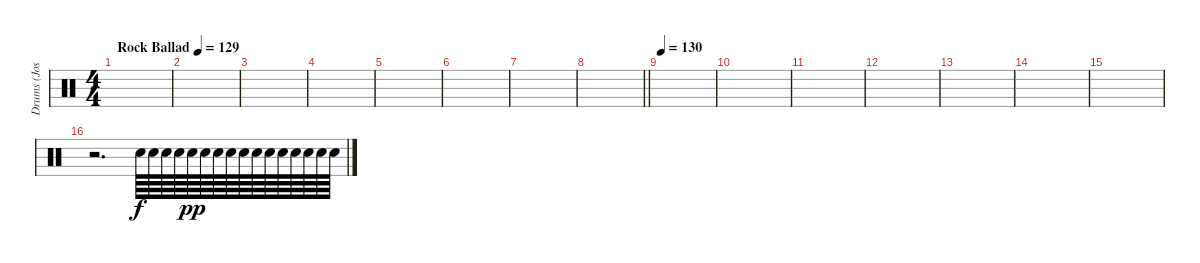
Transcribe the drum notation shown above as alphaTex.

\track ("Drums (Josh Freese)" "Drums (Jos") {instrument percussion}
\staff {score}
\articulation defaults
\ts (4 4)
\tempo (129 "Rock Ballad")
\clef neutral
\ks c
|
|
|
|
|
|
|
\barLineRight lightlight
|
\tempo 130
|
|
|
|
|
|
|
r.2{d} "Electric Snare (hit)".64 "Electric Snare (hit)".64 "Electric Snare (hit)".64 "Electric Snare (hit)".64 "Electric Snare (hit)".64{dy pp} "Electric Snare (hit)".64 "Electric Snare (hit)".64 "Electric Snare (hit)".64 "Electric Snare (hit)".64 "Electric Snare (hit)".64 "Electric Snare (hit)".64 "Electric Snare (hit)".64 "Electric Snare (hit)".64 "Electric Snare (hit)".64 "Electric Snare (hit)".64 "Electric Snare (hit)".64
